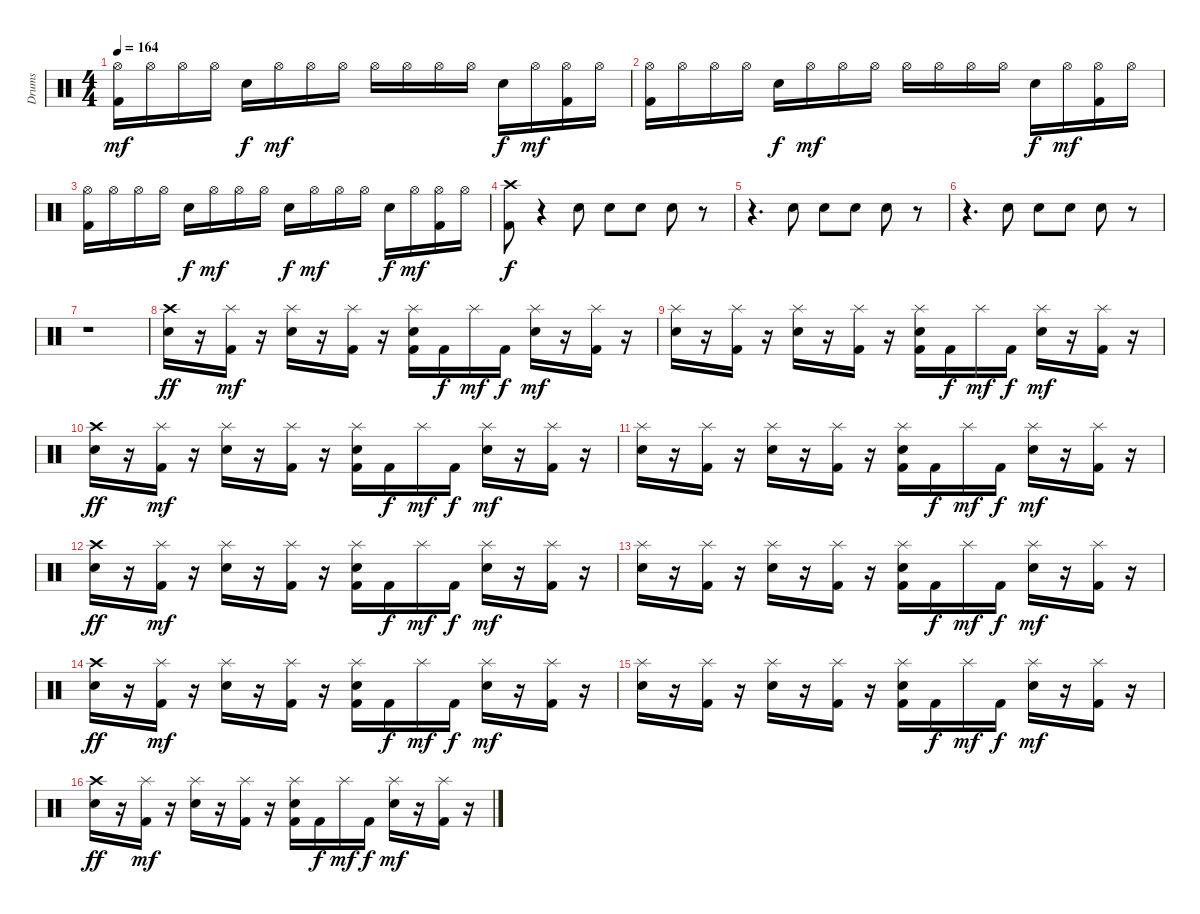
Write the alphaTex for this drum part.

\track ("Drums" "Drums") {instrument percussion}
\staff {score}
\articulation defaults
\ts (4 4)
\tempo 164
\clef neutral
\ks c
("Hi-Hat (open)" "Kick (hit) 2").16{dy mf} "Hi-Hat (open)".16 "Hi-Hat (open)".16 "Hi-Hat (open)".16 "Snare (hit) 2".16{dy f} "Hi-Hat (open)".16{dy mf} "Hi-Hat (open)".16 "Hi-Hat (open)".16 "Hi-Hat (open)".16 "Hi-Hat (open)".16 "Hi-Hat (open)".16 "Hi-Hat (open)".16 "Snare (hit) 2".16{dy f} "Hi-Hat (open)".16{dy mf} ("Hi-Hat (open)" "Kick (hit) 2").16 "Hi-Hat (open)".16 |
("Hi-Hat (open)" "Kick (hit) 2").16 "Hi-Hat (open)".16 "Hi-Hat (open)".16 "Hi-Hat (open)".16 "Snare (hit) 2".16{dy f} "Hi-Hat (open)".16{dy mf} "Hi-Hat (open)".16 "Hi-Hat (open)".16 "Hi-Hat (open)".16 "Hi-Hat (open)".16 "Hi-Hat (open)".16 "Hi-Hat (open)".16 "Snare (hit) 2".16{dy f} "Hi-Hat (open)".16{dy mf} ("Hi-Hat (open)" "Kick (hit) 2").16 "Hi-Hat (open)".16 |
("Hi-Hat (open)" "Kick (hit) 2").16 "Hi-Hat (open)".16 "Hi-Hat (open)".16 "Hi-Hat (open)".16 "Snare (hit) 2".16{dy f} "Hi-Hat (open)".16{dy mf} "Hi-Hat (open)".16 "Hi-Hat (open)".16 "Snare (hit) 2".16{dy f} "Hi-Hat (open)".16{dy mf} "Hi-Hat (open)".16 "Hi-Hat (open)".16 "Snare (hit) 2".16{dy f} "Hi-Hat (open)".16{dy mf} ("Hi-Hat (open)" "Kick (hit) 2").16 "Hi-Hat (open)".16 |
("Crash high (hit)" "Kick (hit) 2").8{dy f} r.4 "Snare (hit) 2".8 "Snare (hit) 2".8 "Snare (hit) 2".8 "Snare (hit) 2".8 r.8 |
r.4{d} "Snare (hit) 2".8 "Snare (hit) 2".8 "Snare (hit) 2".8 "Snare (hit) 2".8 r.8 |
r.4{d} "Snare (hit) 2".8 "Snare (hit) 2".8 "Snare (hit) 2".8 "Snare (hit) 2".8 r.8 |
r.1 |
("Crash high (hit)" "Snare (hit) 2").16{dy ff} r.16 ("Splash (hit)" "Kick (hit) 2").16{dy mf} r.16 ("Splash (hit)" "Snare (hit) 2").16 r.16 ("Splash (hit)" "Kick (hit) 2").16 r.16 ("Splash (hit)" "Snare (hit) 2" "Kick (hit) 2").16 "Kick (hit) 2".16{dy f} "Splash (hit)".16{dy mf} "Kick (hit) 2".16{dy f} ("Splash (hit)" "Snare (hit) 2").16{dy mf} r.16 ("Splash (hit)" "Kick (hit) 2").16 r.16 |
("Splash (hit)" "Snare (hit) 2").16 r.16 ("Splash (hit)" "Kick (hit) 2").16 r.16 ("Splash (hit)" "Snare (hit) 2").16 r.16 ("Splash (hit)" "Kick (hit) 2").16 r.16 ("Splash (hit)" "Snare (hit) 2" "Kick (hit) 2").16 "Kick (hit) 2".16{dy f} "Splash (hit)".16{dy mf} "Kick (hit) 2".16{dy f} ("Splash (hit)" "Snare (hit) 2").16{dy mf} r.16 ("Splash (hit)" "Kick (hit) 2").16 r.16 |
("Crash high (hit)" "Snare (hit) 2").16{dy ff} r.16 ("Splash (hit)" "Kick (hit) 2").16{dy mf} r.16 ("Splash (hit)" "Snare (hit) 2").16 r.16 ("Splash (hit)" "Kick (hit) 2").16 r.16 ("Splash (hit)" "Snare (hit) 2" "Kick (hit) 2").16 "Kick (hit) 2".16{dy f} "Splash (hit)".16{dy mf} "Kick (hit) 2".16{dy f} ("Splash (hit)" "Snare (hit) 2").16{dy mf} r.16 ("Splash (hit)" "Kick (hit) 2").16 r.16 |
("Splash (hit)" "Snare (hit) 2").16 r.16 ("Splash (hit)" "Kick (hit) 2").16 r.16 ("Splash (hit)" "Snare (hit) 2").16 r.16 ("Splash (hit)" "Kick (hit) 2").16 r.16 ("Splash (hit)" "Snare (hit) 2" "Kick (hit) 2").16 "Kick (hit) 2".16{dy f} "Splash (hit)".16{dy mf} "Kick (hit) 2".16{dy f} ("Splash (hit)" "Snare (hit) 2").16{dy mf} r.16 ("Splash (hit)" "Kick (hit) 2").16 r.16 |
("Crash high (hit)" "Snare (hit) 2").16{dy ff} r.16 ("Splash (hit)" "Kick (hit) 2").16{dy mf} r.16 ("Splash (hit)" "Snare (hit) 2").16 r.16 ("Splash (hit)" "Kick (hit) 2").16 r.16 ("Splash (hit)" "Snare (hit) 2" "Kick (hit) 2").16 "Kick (hit) 2".16{dy f} "Splash (hit)".16{dy mf} "Kick (hit) 2".16{dy f} ("Splash (hit)" "Snare (hit) 2").16{dy mf} r.16 ("Splash (hit)" "Kick (hit) 2").16 r.16 |
("Splash (hit)" "Snare (hit) 2").16 r.16 ("Splash (hit)" "Kick (hit) 2").16 r.16 ("Splash (hit)" "Snare (hit) 2").16 r.16 ("Splash (hit)" "Kick (hit) 2").16 r.16 ("Splash (hit)" "Snare (hit) 2" "Kick (hit) 2").16 "Kick (hit) 2".16{dy f} "Splash (hit)".16{dy mf} "Kick (hit) 2".16{dy f} ("Splash (hit)" "Snare (hit) 2").16{dy mf} r.16 ("Splash (hit)" "Kick (hit) 2").16 r.16 |
("Crash high (hit)" "Snare (hit) 2").16{dy ff} r.16 ("Splash (hit)" "Kick (hit) 2").16{dy mf} r.16 ("Splash (hit)" "Snare (hit) 2").16 r.16 ("Splash (hit)" "Kick (hit) 2").16 r.16 ("Splash (hit)" "Snare (hit) 2" "Kick (hit) 2").16 "Kick (hit) 2".16{dy f} "Splash (hit)".16{dy mf} "Kick (hit) 2".16{dy f} ("Splash (hit)" "Snare (hit) 2").16{dy mf} r.16 ("Splash (hit)" "Kick (hit) 2").16 r.16 |
("Splash (hit)" "Snare (hit) 2").16 r.16 ("Splash (hit)" "Kick (hit) 2").16 r.16 ("Splash (hit)" "Snare (hit) 2").16 r.16 ("Splash (hit)" "Kick (hit) 2").16 r.16 ("Splash (hit)" "Snare (hit) 2" "Kick (hit) 2").16 "Kick (hit) 2".16{dy f} "Splash (hit)".16{dy mf} "Kick (hit) 2".16{dy f} ("Splash (hit)" "Snare (hit) 2").16{dy mf} r.16 ("Splash (hit)" "Kick (hit) 2").16 r.16 |
("Crash high (hit)" "Snare (hit) 2").16{dy ff} r.16 ("Splash (hit)" "Kick (hit) 2").16{dy mf} r.16 ("Splash (hit)" "Snare (hit) 2").16 r.16 ("Splash (hit)" "Kick (hit) 2").16 r.16 ("Splash (hit)" "Snare (hit) 2" "Kick (hit) 2").16 "Kick (hit) 2".16{dy f} "Splash (hit)".16{dy mf} "Kick (hit) 2".16{dy f} ("Splash (hit)" "Snare (hit) 2").16{dy mf} r.16 ("Splash (hit)" "Kick (hit) 2").16 r.16
